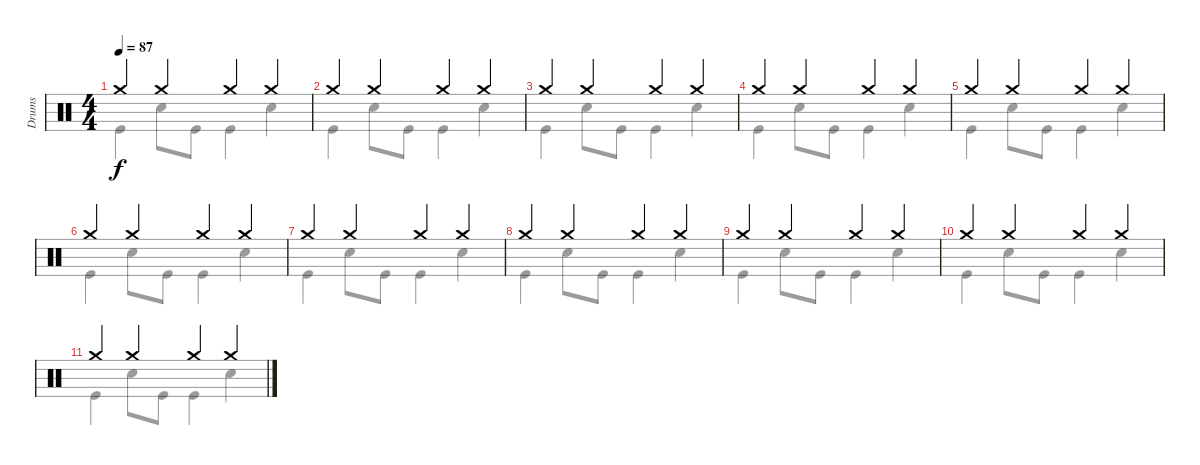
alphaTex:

\track ("Drums" "Drums") {instrument percussion}
\staff {score}
\articulation defaults
\voice
\ts (4 4)
\tempo 87
\clef neutral
\ks c "Crash medium (hit)".4{dy f volume 5} "Crash medium (hit)".4 "Crash medium (hit)".4 "Crash medium (hit)".4
|
"Crash medium (hit)".4 "Crash medium (hit)".4 "Crash medium (hit)".4 "Crash medium (hit)".4 |
"Crash medium (hit)".4 "Crash medium (hit)".4 "Crash medium (hit)".4 "Crash medium (hit)".4 |
"Crash medium (hit)".4 "Crash medium (hit)".4 "Crash medium (hit)".4 "Crash medium (hit)".4 |
"Crash medium (hit)".4 "Crash medium (hit)".4 "Crash medium (hit)".4 "Crash medium (hit)".4 |
"Crash medium (hit)".4 "Crash medium (hit)".4 "Crash medium (hit)".4 "Crash medium (hit)".4 |
"Crash medium (hit)".4 "Crash medium (hit)".4 "Crash medium (hit)".4 "Crash medium (hit)".4 |
"Crash medium (hit)".4{volume 0} "Crash medium (hit)".4 "Crash medium (hit)".4 "Crash medium (hit)".4 |
"Crash medium (hit)".4 "Crash medium (hit)".4 "Crash medium (hit)".4 "Crash medium (hit)".4 |
"Crash medium (hit)".4 "Crash medium (hit)".4 "Crash medium (hit)".4 "Crash medium (hit)".4 |
"Crash medium (hit)".4 "Crash medium (hit)".4 "Crash medium (hit)".4 "Crash medium (hit)".4
\voice
\clef neutral
\ottava regular
\simile none
\ks c "Kick (hit)".4{dy f} "Snare (hit) 2".8 "Kick (hit)".8 "Kick (hit)".4 "Snare (hit) 2".4
|
"Kick (hit)".4 "Snare (hit) 2".8 "Kick (hit)".8 "Kick (hit)".4 "Snare (hit) 2".4 |
"Kick (hit)".4 "Snare (hit) 2".8 "Kick (hit)".8 "Kick (hit)".4 "Snare (hit) 2".4 |
"Kick (hit)".4 "Snare (hit) 2".8 "Kick (hit)".8 "Kick (hit)".4 "Snare (hit) 2".4 |
"Kick (hit)".4 "Snare (hit) 2".8 "Kick (hit)".8 "Kick (hit)".4 "Snare (hit) 2".4 |
"Kick (hit)".4 "Snare (hit) 2".8 "Kick (hit)".8 "Kick (hit)".4 "Snare (hit) 2".4 |
"Kick (hit)".4 "Snare (hit) 2".8 "Kick (hit)".8 "Kick (hit)".4 "Snare (hit) 2".4 |
"Kick (hit)".4 "Snare (hit) 2".8 "Kick (hit)".8 "Kick (hit)".4 "Snare (hit) 2".4 |
"Kick (hit)".4 "Snare (hit) 2".8 "Kick (hit)".8 "Kick (hit)".4 "Snare (hit) 2".4 |
"Kick (hit)".4 "Snare (hit) 2".8 "Kick (hit)".8 "Kick (hit)".4 "Snare (hit) 2".4 |
"Kick (hit)".4 "Snare (hit) 2".8 "Kick (hit)".8 "Kick (hit)".4 "Snare (hit) 2".4
